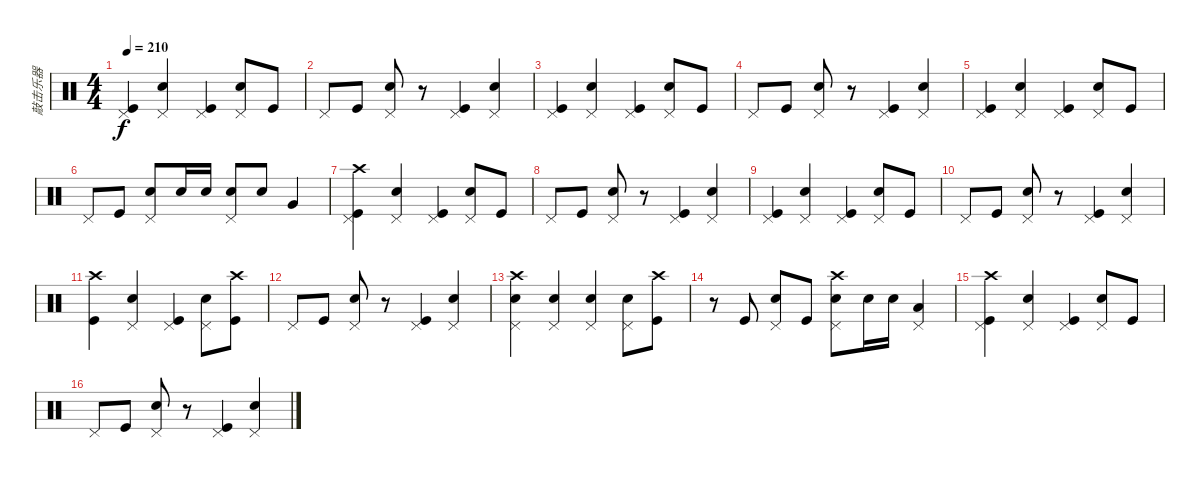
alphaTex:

\track ("敲击乐器" "敲击乐器") {instrument percussion}
\staff {score}
\articulation defaults
\ts (4 4)
\tempo 210
\clef neutral
\ks c
("Pedal Hi-Hat (hit)" "Kick (hit)").4{dy f} ("Pedal Hi-Hat (hit)" "Snare (hit) 2").4 ("Pedal Hi-Hat (hit)" "Kick (hit)").4 ("Pedal Hi-Hat (hit)" "Snare (hit) 2").8 "Kick (hit)".8 |
"Pedal Hi-Hat (hit)".8 "Kick (hit)".8 ("Pedal Hi-Hat (hit)" "Snare (hit) 2").8 r.8 ("Kick (hit)" "Pedal Hi-Hat (hit)").4 ("Snare (hit) 2" "Pedal Hi-Hat (hit)").4 |
("Pedal Hi-Hat (hit)" "Kick (hit)").4 ("Pedal Hi-Hat (hit)" "Snare (hit) 2").4 ("Pedal Hi-Hat (hit)" "Kick (hit)").4 ("Pedal Hi-Hat (hit)" "Snare (hit) 2").8 "Kick (hit)".8 |
"Pedal Hi-Hat (hit)".8 "Kick (hit)".8 ("Pedal Hi-Hat (hit)" "Snare (hit) 2").8 r.8 ("Kick (hit)" "Pedal Hi-Hat (hit)").4 ("Snare (hit) 2" "Pedal Hi-Hat (hit)").4 |
("Pedal Hi-Hat (hit)" "Kick (hit)").4 ("Pedal Hi-Hat (hit)" "Snare (hit) 2").4 ("Pedal Hi-Hat (hit)" "Kick (hit)").4 ("Pedal Hi-Hat (hit)" "Snare (hit) 2").8 "Kick (hit)".8 |
"Pedal Hi-Hat (hit)".8 "Kick (hit)".8 ("Pedal Hi-Hat (hit)" "Snare (hit) 2").8 "Snare (hit) 2".16 "Snare (hit) 2".16 ("Pedal Hi-Hat (hit)" "Snare (hit) 2").8 "Snare (hit) 2".8 "Very Low Tom (hit)".4 |
("Crash high (hit)" "Pedal Hi-Hat (hit)" "Kick (hit)").4 ("Pedal Hi-Hat (hit)" "Snare (hit) 2").4 ("Pedal Hi-Hat (hit)" "Kick (hit)").4 ("Pedal Hi-Hat (hit)" "Snare (hit) 2").8 "Kick (hit)".8 |
"Pedal Hi-Hat (hit)".8 "Kick (hit)".8 ("Pedal Hi-Hat (hit)" "Snare (hit) 2").8 r.8 ("Kick (hit)" "Pedal Hi-Hat (hit)").4 ("Snare (hit) 2" "Pedal Hi-Hat (hit)").4 |
("Pedal Hi-Hat (hit)" "Kick (hit)").4 ("Pedal Hi-Hat (hit)" "Snare (hit) 2").4 ("Pedal Hi-Hat (hit)" "Kick (hit)").4 ("Pedal Hi-Hat (hit)" "Snare (hit) 2").8 "Kick (hit)".8 |
"Pedal Hi-Hat (hit)".8 "Kick (hit)".8 ("Pedal Hi-Hat (hit)" "Snare (hit) 2").8 r.8 ("Kick (hit)" "Pedal Hi-Hat (hit)").4 ("Snare (hit) 2" "Pedal Hi-Hat (hit)").4 |
("Crash high (hit)" "Kick (hit)").4 ("Pedal Hi-Hat (hit)" "Snare (hit) 2").4 ("Pedal Hi-Hat (hit)" "Kick (hit)").4 ("Pedal Hi-Hat (hit)" "Snare (hit) 2").8 ("Crash high (hit)" "Kick (hit)").8 |
"Pedal Hi-Hat (hit)".8 "Kick (hit)".8 ("Pedal Hi-Hat (hit)" "Snare (hit) 2").8 r.8 ("Kick (hit)" "Pedal Hi-Hat (hit)").4 ("Snare (hit) 2" "Pedal Hi-Hat (hit)").4 |
("Snare (hit) 2" "Pedal Hi-Hat (hit)" "Crash high (hit)").4 ("Pedal Hi-Hat (hit)" "Snare (hit) 2").4 ("Pedal Hi-Hat (hit)" "Snare (hit) 2").4 ("Pedal Hi-Hat (hit)" "Snare (hit) 2").8 ("Crash high (hit)" "Kick (hit)").8 |
r.8 "Kick (hit)".8 ("Pedal Hi-Hat (hit)" "Snare (hit) 2").8 "Kick (hit)".8 ("Crash high (hit)" "Pedal Hi-Hat (hit)" "Snare (hit) 2").8 "Snare (hit) 2".16 "Snare (hit) 2".16 ("Low Floor Tom (hit)" "Pedal Hi-Hat (hit)").4 |
("Crash high (hit)" "Pedal Hi-Hat (hit)" "Kick (hit)").4 ("Pedal Hi-Hat (hit)" "Snare (hit) 2").4 ("Pedal Hi-Hat (hit)" "Kick (hit)").4 ("Pedal Hi-Hat (hit)" "Snare (hit) 2").8 "Kick (hit)".8 |
"Pedal Hi-Hat (hit)".8 "Kick (hit)".8 ("Pedal Hi-Hat (hit)" "Snare (hit) 2").8 r.8 ("Kick (hit)" "Pedal Hi-Hat (hit)").4 ("Snare (hit) 2" "Pedal Hi-Hat (hit)").4
